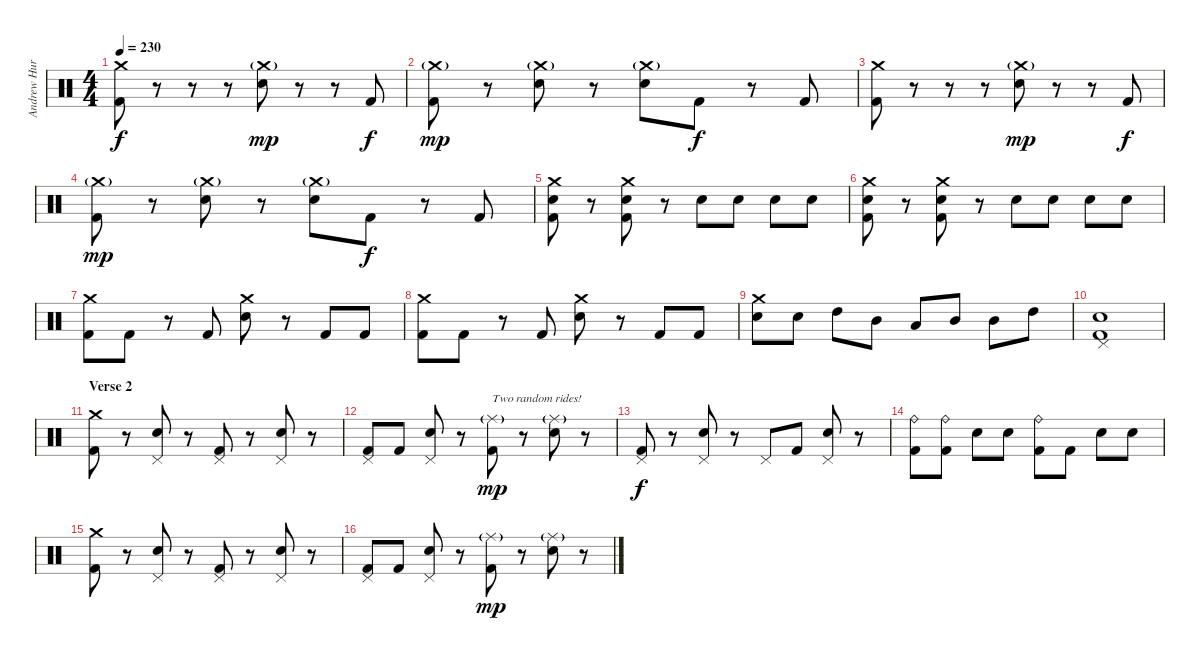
\track ("Andrew Hurley (Drums)" "Andrew Hur") {instrument percussion}
\staff {score}
\articulation defaults
\ts (4 4)
\tempo 230
\clef neutral
\ks c
("Crash medium (hit)" "Kick (hit) 2").8{dy f} r.8 r.8 r.8 ("Crash medium (hit)"{g} "Electric Snare (hit)").8{dy mp} r.8 r.8 "Kick (hit) 2".8{dy f} |
("Crash medium (hit)"{g} "Kick (hit) 2").8{dy mp} r.8 ("Crash medium (hit)"{g} "Electric Snare (hit)").8 r.8 ("Crash medium (hit)"{g} "Electric Snare (hit)").8 "Kick (hit) 2".8{dy f} r.8 "Kick (hit) 2".8 |
("Crash medium (hit)" "Kick (hit) 2").8 r.8 r.8 r.8 ("Crash medium (hit)"{g} "Electric Snare (hit)").8{dy mp} r.8 r.8 "Kick (hit) 2".8{dy f} |
("Crash medium (hit)"{g} "Kick (hit) 2").8{dy mp} r.8 ("Crash medium (hit)"{g} "Electric Snare (hit)").8 r.8 ("Crash medium (hit)"{g} "Electric Snare (hit)").8 "Kick (hit) 2".8{dy f} r.8 "Kick (hit) 2".8 |
("Crash medium (hit)" "Electric Snare (hit)" "Kick (hit) 2").8 r.8 ("Crash medium (hit)" "Electric Snare (hit)" "Kick (hit) 2").8 r.8 "Electric Snare (hit)".8 "Electric Snare (hit)".8 "Electric Snare (hit)".8 "Electric Snare (hit)".8 |
("Crash medium (hit)" "Electric Snare (hit)" "Kick (hit) 2").8 r.8 ("Crash medium (hit)" "Electric Snare (hit)" "Kick (hit) 2").8 r.8 "Electric Snare (hit)".8 "Electric Snare (hit)".8 "Electric Snare (hit)".8 "Electric Snare (hit)".8 |
("Crash medium (hit)" "Kick (hit) 2").8 "Kick (hit) 2".8 r.8 "Kick (hit) 2".8 ("Crash medium (hit)" "Electric Snare (hit)").8 r.8 "Kick (hit) 2".8 "Kick (hit) 2".8 |
("Crash medium (hit)" "Kick (hit) 2").8 "Kick (hit) 2".8 r.8 "Kick (hit) 2".8 ("Crash medium (hit)" "Electric Snare (hit)").8 r.8 "Kick (hit) 2".8 "Kick (hit) 2".8 |
("Crash medium (hit)" "Electric Snare (hit)").8 "Electric Snare (hit)".8 "High Tom (hit)".8 "Mid Tom (hit)".8 "Low Tom (hit)".8 "Mid Tom (hit)".8 "Mid Tom (hit)".8 "High Tom (hit)".8 |
("Pedal Hi-Hat (hit)" "Electric Snare (hit)" "Kick (hit) 2").1 |
\section ("" "Verse 2")
("Crash medium (hit)" "Kick (hit) 2").8 r.8 ("Pedal Hi-Hat (hit)" "Electric Snare (hit)").8 r.8 ("Pedal Hi-Hat (hit)" "Kick (hit) 2").8 r.8 ("Pedal Hi-Hat (hit)" "Electric Snare (hit)").8 r.8 |
("Pedal Hi-Hat (hit)" "Kick (hit) 2").8 "Kick (hit) 2".8 ("Pedal Hi-Hat (hit)" "Electric Snare (hit)").8 r.8 ("Ride (middle)"{g} "Kick (hit) 2").8{txt "Two random rides!" dy mp} r.8 ("Ride (middle)"{g} "Electric Snare (hit)").8 r.8 |
("Pedal Hi-Hat (hit)" "Kick (hit) 2").8{dy f} r.8 ("Pedal Hi-Hat (hit)" "Electric Snare (hit)").8 r.8 "Pedal Hi-Hat (hit)".8 "Kick (hit) 2".8 ("Pedal Hi-Hat (hit)" "Electric Snare (hit)").8 r.8 |
("Ride (bell)" "Kick (hit) 2").8 ("Ride (bell)" "Kick (hit) 2").8 "Electric Snare (hit)".8 "Electric Snare (hit)".8 ("Ride (bell)" "Kick (hit) 2").8 "Kick (hit) 2".8 "Electric Snare (hit)".8 "Electric Snare (hit)".8 |
("Crash medium (hit)" "Kick (hit) 2").8 r.8 ("Pedal Hi-Hat (hit)" "Electric Snare (hit)").8 r.8 ("Pedal Hi-Hat (hit)" "Kick (hit) 2").8 r.8 ("Pedal Hi-Hat (hit)" "Electric Snare (hit)").8 r.8 |
("Pedal Hi-Hat (hit)" "Kick (hit) 2").8 "Kick (hit) 2".8 ("Pedal Hi-Hat (hit)" "Electric Snare (hit)").8 r.8 ("Ride (middle)"{g} "Kick (hit) 2").8{dy mp} r.8 ("Ride (middle)"{g} "Electric Snare (hit)").8 r.8
